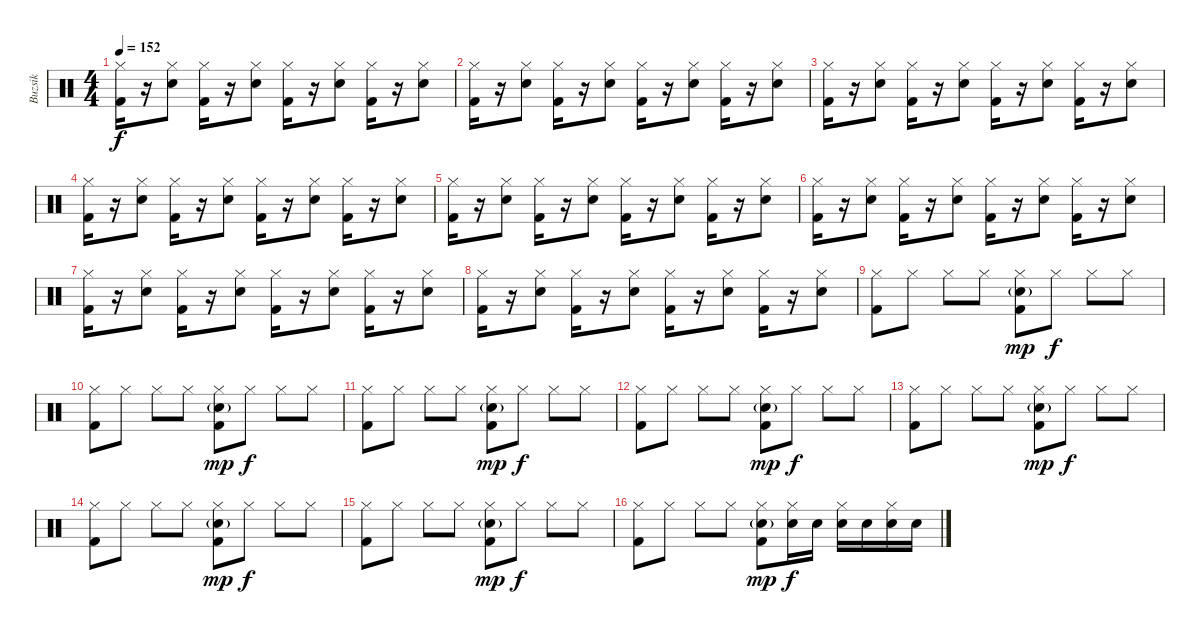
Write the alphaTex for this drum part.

\track ("Buzsik" "Buzsik") {instrument percussion}
\staff {score}
\articulation defaults
\ts (4 4)
\tempo 152
\clef neutral
\ks c
("Hi-Hat (closed)" "Kick (hit) 2").16{dy f} r.16 ("Hi-Hat (closed)" "Electric Snare (hit)").8 ("Hi-Hat (closed)" "Kick (hit) 2").16 r.16 ("Hi-Hat (closed)" "Electric Snare (hit)").8 ("Hi-Hat (closed)" "Kick (hit) 2").16 r.16 ("Hi-Hat (closed)" "Electric Snare (hit)").8 ("Hi-Hat (closed)" "Kick (hit) 2").16 r.16 ("Hi-Hat (closed)" "Electric Snare (hit)").8 |
("Hi-Hat (closed)" "Kick (hit) 2").16 r.16 ("Hi-Hat (closed)" "Electric Snare (hit)").8 ("Hi-Hat (closed)" "Kick (hit) 2").16 r.16 ("Hi-Hat (closed)" "Electric Snare (hit)").8 ("Hi-Hat (closed)" "Kick (hit) 2").16 r.16 ("Hi-Hat (closed)" "Electric Snare (hit)").8 ("Hi-Hat (closed)" "Kick (hit) 2").16 r.16 ("Hi-Hat (closed)" "Electric Snare (hit)").8 |
("Hi-Hat (closed)" "Kick (hit) 2").16 r.16 ("Hi-Hat (closed)" "Electric Snare (hit)").8 ("Hi-Hat (closed)" "Kick (hit) 2").16 r.16 ("Hi-Hat (closed)" "Electric Snare (hit)").8 ("Hi-Hat (closed)" "Kick (hit) 2").16 r.16 ("Hi-Hat (closed)" "Electric Snare (hit)").8 ("Hi-Hat (closed)" "Kick (hit) 2").16 r.16 ("Hi-Hat (closed)" "Electric Snare (hit)").8 |
("Hi-Hat (closed)" "Kick (hit) 2").16 r.16 ("Hi-Hat (closed)" "Electric Snare (hit)").8 ("Hi-Hat (closed)" "Kick (hit) 2").16 r.16 ("Hi-Hat (closed)" "Electric Snare (hit)").8 ("Hi-Hat (closed)" "Kick (hit) 2").16 r.16 ("Hi-Hat (closed)" "Electric Snare (hit)").8 ("Hi-Hat (closed)" "Kick (hit) 2").16 r.16 ("Hi-Hat (closed)" "Electric Snare (hit)").8 |
("Hi-Hat (closed)" "Kick (hit) 2").16 r.16 ("Hi-Hat (closed)" "Electric Snare (hit)").8 ("Hi-Hat (closed)" "Kick (hit) 2").16 r.16 ("Hi-Hat (closed)" "Electric Snare (hit)").8 ("Hi-Hat (closed)" "Kick (hit) 2").16 r.16 ("Hi-Hat (closed)" "Electric Snare (hit)").8 ("Hi-Hat (closed)" "Kick (hit) 2").16 r.16 ("Hi-Hat (closed)" "Electric Snare (hit)").8 |
("Hi-Hat (closed)" "Kick (hit) 2").16 r.16 ("Hi-Hat (closed)" "Electric Snare (hit)").8 ("Hi-Hat (closed)" "Kick (hit) 2").16 r.16 ("Hi-Hat (closed)" "Electric Snare (hit)").8 ("Hi-Hat (closed)" "Kick (hit) 2").16 r.16 ("Hi-Hat (closed)" "Electric Snare (hit)").8 ("Hi-Hat (closed)" "Kick (hit) 2").16 r.16 ("Hi-Hat (closed)" "Electric Snare (hit)").8 |
("Hi-Hat (closed)" "Kick (hit) 2").16 r.16 ("Hi-Hat (closed)" "Electric Snare (hit)").8 ("Hi-Hat (closed)" "Kick (hit) 2").16 r.16 ("Hi-Hat (closed)" "Electric Snare (hit)").8 ("Hi-Hat (closed)" "Kick (hit) 2").16 r.16 ("Hi-Hat (closed)" "Electric Snare (hit)").8 ("Hi-Hat (closed)" "Kick (hit) 2").16 r.16 ("Hi-Hat (closed)" "Electric Snare (hit)").8 |
("Hi-Hat (closed)" "Kick (hit) 2").16 r.16 ("Hi-Hat (closed)" "Electric Snare (hit)").8 ("Hi-Hat (closed)" "Kick (hit) 2").16 r.16 ("Hi-Hat (closed)" "Electric Snare (hit)").8 ("Hi-Hat (closed)" "Kick (hit) 2").16 r.16 ("Hi-Hat (closed)" "Electric Snare (hit)").8 ("Hi-Hat (closed)" "Kick (hit) 2").16 r.16 ("Hi-Hat (closed)" "Electric Snare (hit)").8 |
("Hi-Hat (closed)" "Kick (hit) 2").8 "Hi-Hat (closed)".8 "Hi-Hat (closed)".8 "Hi-Hat (closed)".8 ("Hi-Hat (closed)" "Snare (hit) 2"{g} "Kick (hit) 2").8{dy mp} "Hi-Hat (closed)".8{dy f} "Hi-Hat (closed)".8 "Hi-Hat (closed)".8 |
("Hi-Hat (closed)" "Kick (hit) 2").8 "Hi-Hat (closed)".8 "Hi-Hat (closed)".8 "Hi-Hat (closed)".8 ("Hi-Hat (closed)" "Snare (hit) 2"{g} "Kick (hit) 2").8{dy mp} "Hi-Hat (closed)".8{dy f} "Hi-Hat (closed)".8 "Hi-Hat (closed)".8 |
("Hi-Hat (closed)" "Kick (hit) 2").8 "Hi-Hat (closed)".8 "Hi-Hat (closed)".8 "Hi-Hat (closed)".8 ("Hi-Hat (closed)" "Snare (hit) 2"{g} "Kick (hit) 2").8{dy mp} "Hi-Hat (closed)".8{dy f} "Hi-Hat (closed)".8 "Hi-Hat (closed)".8 |
("Hi-Hat (closed)" "Kick (hit) 2").8 "Hi-Hat (closed)".8 "Hi-Hat (closed)".8 "Hi-Hat (closed)".8 ("Hi-Hat (closed)" "Snare (hit) 2"{g} "Kick (hit) 2").8{dy mp} "Hi-Hat (closed)".8{dy f} "Hi-Hat (closed)".8 "Hi-Hat (closed)".8 |
("Hi-Hat (closed)" "Kick (hit) 2").8 "Hi-Hat (closed)".8 "Hi-Hat (closed)".8 "Hi-Hat (closed)".8 ("Hi-Hat (closed)" "Snare (hit) 2"{g} "Kick (hit) 2").8{dy mp} "Hi-Hat (closed)".8{dy f} "Hi-Hat (closed)".8 "Hi-Hat (closed)".8 |
("Hi-Hat (closed)" "Kick (hit) 2").8 "Hi-Hat (closed)".8 "Hi-Hat (closed)".8 "Hi-Hat (closed)".8 ("Hi-Hat (closed)" "Snare (hit) 2"{g} "Kick (hit) 2").8{dy mp} "Hi-Hat (closed)".8{dy f} "Hi-Hat (closed)".8 "Hi-Hat (closed)".8 |
("Hi-Hat (closed)" "Kick (hit) 2").8 "Hi-Hat (closed)".8 "Hi-Hat (closed)".8 "Hi-Hat (closed)".8 ("Hi-Hat (closed)" "Snare (hit) 2"{g} "Kick (hit) 2").8{dy mp} "Hi-Hat (closed)".8{dy f} "Hi-Hat (closed)".8 "Hi-Hat (closed)".8 |
("Hi-Hat (closed)" "Kick (hit) 2").8 "Hi-Hat (closed)".8 "Hi-Hat (closed)".8 "Hi-Hat (closed)".8 ("Hi-Hat (closed)" "Snare (hit) 2"{g} "Kick (hit) 2").8{dy mp} ("Hi-Hat (closed)" "Electric Snare (hit)").16{dy f} "Electric Snare (hit)".16 ("Hi-Hat (closed)" "Electric Snare (hit)").16 "Electric Snare (hit)".16 ("Hi-Hat (closed)" "Electric Snare (hit)").16 "Electric Snare (hit)".16
